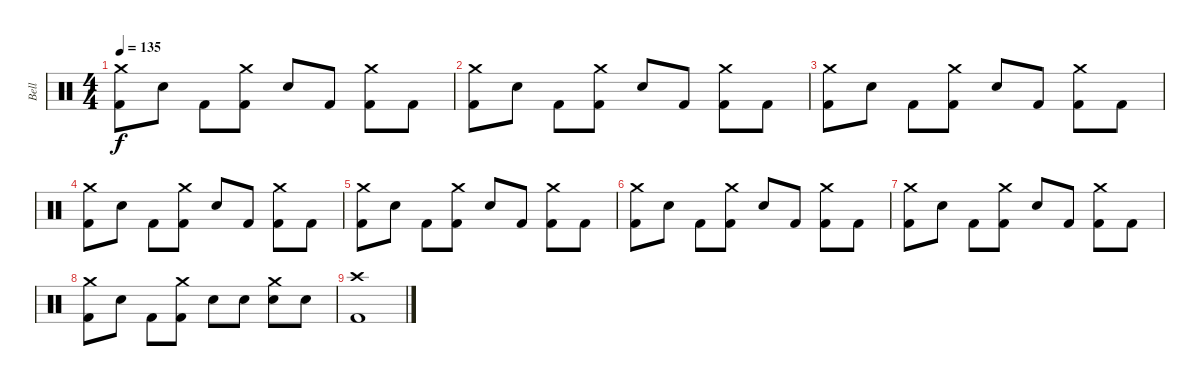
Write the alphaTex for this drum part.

\track ("Bell" "Bell") {instrument percussion}
\staff {score}
\articulation defaults
\ts (4 4)
\tempo 135
\clef neutral
\ks c
("Crash medium (hit)" "Kick (hit) 2").8{dy f} "Snare (hit) 2".8 "Kick (hit) 2".8 ("Crash medium (hit)" "Kick (hit) 2").8 "Snare (hit) 2".8 "Kick (hit) 2".8 ("Crash medium (hit)" "Kick (hit) 2").8 "Kick (hit) 2".8 |
("Crash medium (hit)" "Kick (hit) 2").8 "Snare (hit) 2".8 "Kick (hit) 2".8 ("Crash medium (hit)" "Kick (hit) 2").8 "Snare (hit) 2".8 "Kick (hit) 2".8 ("Crash medium (hit)" "Kick (hit) 2").8 "Kick (hit) 2".8 |
("Crash medium (hit)" "Kick (hit) 2").8 "Snare (hit) 2".8 "Kick (hit) 2".8 ("Crash medium (hit)" "Kick (hit) 2").8 "Snare (hit) 2".8 "Kick (hit) 2".8 ("Crash medium (hit)" "Kick (hit) 2").8 "Kick (hit) 2".8 |
("Crash medium (hit)" "Kick (hit) 2").8 "Snare (hit) 2".8 "Kick (hit) 2".8 ("Crash medium (hit)" "Kick (hit) 2").8 "Snare (hit) 2".8 "Kick (hit) 2".8 ("Crash medium (hit)" "Kick (hit) 2").8 "Kick (hit) 2".8 |
("Crash medium (hit)" "Kick (hit) 2").8 "Snare (hit) 2".8 "Kick (hit) 2".8 ("Crash medium (hit)" "Kick (hit) 2").8 "Snare (hit) 2".8 "Kick (hit) 2".8 ("Crash medium (hit)" "Kick (hit) 2").8 "Kick (hit) 2".8 |
("Crash medium (hit)" "Kick (hit) 2").8 "Snare (hit) 2".8 "Kick (hit) 2".8 ("Crash medium (hit)" "Kick (hit) 2").8 "Snare (hit) 2".8 "Kick (hit) 2".8 ("Crash medium (hit)" "Kick (hit) 2").8 "Kick (hit) 2".8 |
("Crash medium (hit)" "Kick (hit) 2").8 "Snare (hit) 2".8 "Kick (hit) 2".8 ("Crash medium (hit)" "Kick (hit) 2").8 "Snare (hit) 2".8 "Kick (hit) 2".8 ("Crash medium (hit)" "Kick (hit) 2").8 "Kick (hit) 2".8 |
("Crash medium (hit)" "Kick (hit) 2").8 "Snare (hit) 2".8 "Kick (hit) 2".8 ("Crash medium (hit)" "Kick (hit) 2").8 "Snare (hit) 2".8 "Electric Snare (hit)".8 ("Crash medium (hit)" "Electric Snare (hit)").8 "Electric Snare (hit)".8 |
("Crash high (hit)" "Kick (hit) 2").1
